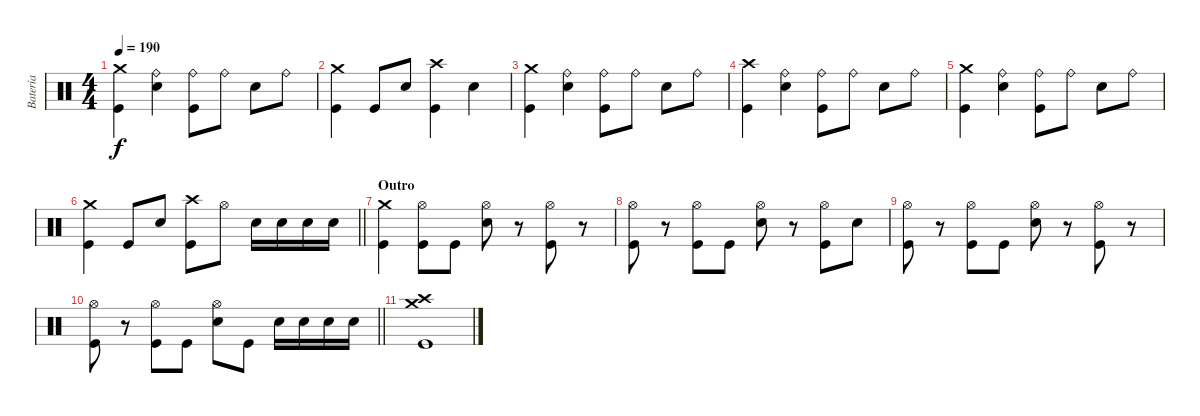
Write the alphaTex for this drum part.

\track ("Batería" "Batería") {instrument percussion}
\staff {score}
\articulation defaults
\ts (4 4)
\tempo 190
\clef neutral
\ks c
("Crash medium (hit)" "Kick (hit)").4{dy f} ("Ride (bell)" "Electric Snare (hit)").4 ("Ride (bell)" "Kick (hit)").8 "Ride (bell)".8 "Electric Snare (hit)".8 "Ride (bell)".8 |
("Crash medium (hit)" "Kick (hit)").4 "Kick (hit)".8 "Electric Snare (hit)".8 ("Crash high (hit)" "Kick (hit)").4 "Electric Snare (hit)".4 |
("Crash medium (hit)" "Kick (hit)").4 ("Ride (bell)" "Electric Snare (hit)").4 ("Ride (bell)" "Kick (hit)").8 "Ride (bell)".8 "Electric Snare (hit)".8 "Ride (bell)".8 |
("Crash high (hit)" "Kick (hit)").4 ("Ride (bell)" "Electric Snare (hit)").4 ("Ride (bell)" "Kick (hit)").8 "Ride (bell)".8 "Electric Snare (hit)".8 "Ride (bell)".8 |
("Crash medium (hit)" "Kick (hit)").4 ("Ride (bell)" "Electric Snare (hit)").4 ("Ride (bell)" "Kick (hit)").8 "Ride (bell)".8 "Electric Snare (hit)".8 "Ride (bell)".8 |
\barLineRight lightlight
("Crash medium (hit)" "Kick (hit)").4 "Kick (hit)".8 "Electric Snare (hit)".8 ("Crash high (hit)" "Kick (hit)").8 "Hi-Hat (open)".8 "Electric Snare (hit)".16 "Electric Snare (hit)".16 "Electric Snare (hit)".16 "Electric Snare (hit)".16 |
\section ("" "Outro")
("Crash medium (hit)" "Kick (hit)").4 ("Hi-Hat (open)" "Kick (hit)").8 "Kick (hit)".8 ("Hi-Hat (open)" "Electric Snare (hit)").8 r.8 ("Hi-Hat (open)" "Kick (hit)").8 r.8 |
("Hi-Hat (open)" "Kick (hit)").8 r.8 ("Hi-Hat (open)" "Kick (hit)").8 "Kick (hit)".8 ("Hi-Hat (open)" "Electric Snare (hit)").8 r.8 ("Hi-Hat (open)" "Kick (hit)").8 "Electric Snare (hit)".8 |
("Hi-Hat (open)" "Kick (hit)").8 r.8 ("Hi-Hat (open)" "Kick (hit)").8 "Kick (hit)".8 ("Hi-Hat (open)" "Electric Snare (hit)").8 r.8 ("Hi-Hat (open)" "Kick (hit)").8 r.8 |
\barLineRight lightlight
("Hi-Hat (open)" "Kick (hit)").8 r.8 ("Hi-Hat (open)" "Kick (hit)").8 "Kick (hit)".8 ("Hi-Hat (open)" "Electric Snare (hit)").8 "Kick (hit)".8 "Electric Snare (hit)".16 "Electric Snare (hit)".16 "Electric Snare (hit)".16 "Electric Snare (hit)".16 |
("Crash medium (hit)" "Crash high (hit)" "Kick (hit)").1
